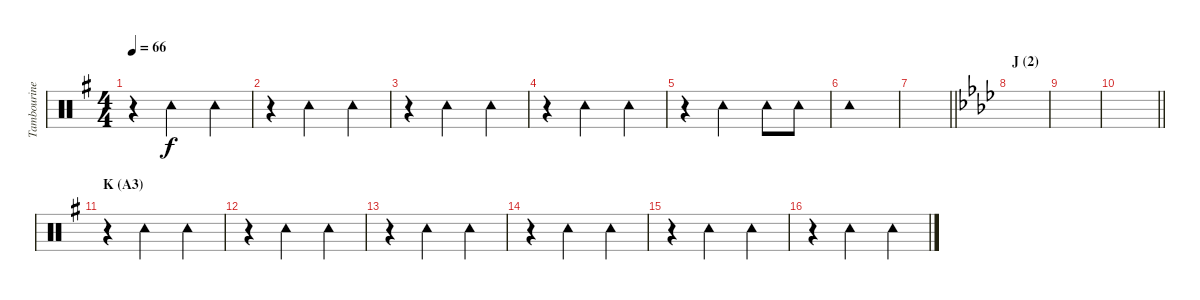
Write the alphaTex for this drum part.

\track ("Tambourine: Ray Copoper" "Tambourine") {instrument percussion}
\staff {score}
\articulation defaults
\ts (4 4)
\tempo 66
\clef neutral
\ks g
r.4{dy f} "Tambourine (hit)".2 "Tambourine (hit)".4 |
r.4 "Tambourine (hit)".2 "Tambourine (hit)".4 |
r.4 "Tambourine (hit)".2 "Tambourine (hit)".4 |
r.4 "Tambourine (hit)".2 "Tambourine (hit)".4 |
r.4 "Tambourine (hit)".2 "Tambourine (hit)".8 "Tambourine (hit)".8 |
"Tambourine (hit)".1 |
\barLineRight lightlight
|
\section ("" "J (2)")
\ks ab
|
|
\barLineRight lightlight
|
\section ("" "K (A3)")
\ks g
r.4 "Tambourine (hit)".2 "Tambourine (hit)".4 |
r.4 "Tambourine (hit)".2 "Tambourine (hit)".4 |
r.4 "Tambourine (hit)".2 "Tambourine (hit)".4 |
r.4 "Tambourine (hit)".2 "Tambourine (hit)".4 |
r.4 "Tambourine (hit)".2 "Tambourine (hit)".4 |
r.4 "Tambourine (hit)".2 "Tambourine (hit)".4
